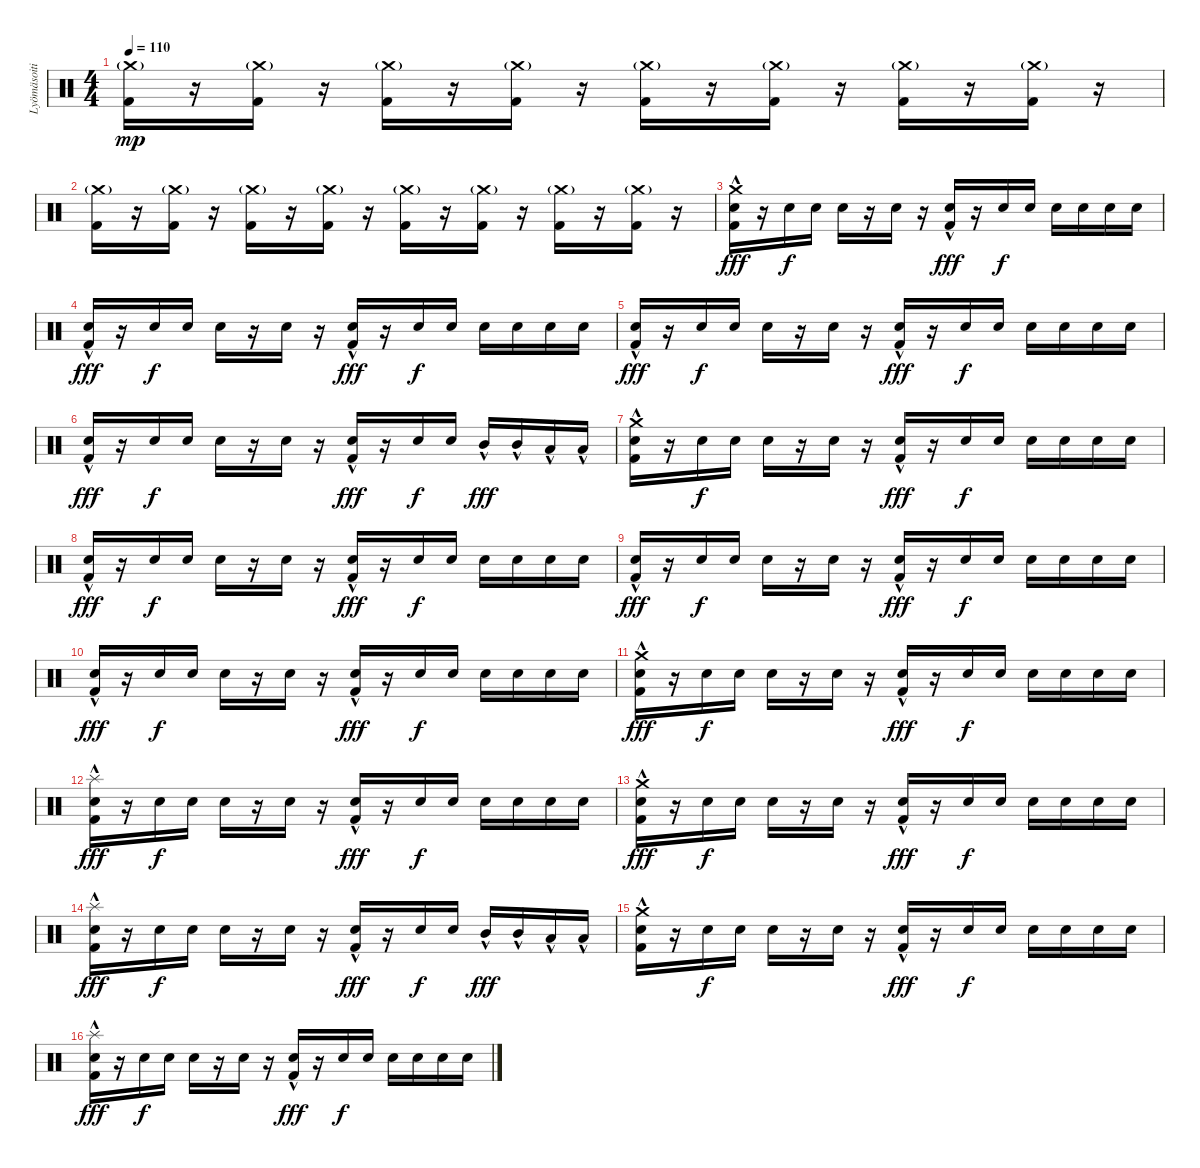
\track ("Lyömäsoitin" "Lyömäsoiti") {instrument percussion}
\staff {score}
\articulation defaults
\ts (4 4)
\tempo 110
\clef neutral
\ks c
("Crash medium (hit)"{g} "Kick (hit) 2").16{dy mp} r.16 ("Crash medium (hit)"{g} "Kick (hit) 2").16 r.16 ("Crash medium (hit)"{g} "Kick (hit) 2").16 r.16 ("Crash medium (hit)"{g} "Kick (hit) 2").16 r.16 ("Crash medium (hit)"{g} "Kick (hit) 2").16 r.16 ("Crash medium (hit)"{g} "Kick (hit) 2").16 r.16 ("Crash medium (hit)"{g} "Kick (hit) 2").16 r.16 ("Crash medium (hit)"{g} "Kick (hit) 2").16 r.16 |
("Crash medium (hit)"{g} "Kick (hit) 2").16 r.16 ("Crash medium (hit)"{g} "Kick (hit) 2").16 r.16 ("Crash medium (hit)"{g} "Kick (hit) 2").16 r.16 ("Crash medium (hit)"{g} "Kick (hit) 2").16 r.16 ("Crash medium (hit)"{g} "Kick (hit) 2").16 r.16 ("Crash medium (hit)"{g} "Kick (hit) 2").16 r.16 ("Crash medium (hit)"{g} "Kick (hit) 2").16 r.16 ("Crash medium (hit)"{g} "Kick (hit) 2").16 r.16 |
("Crash medium (hit)" "Snare (hit) 2"{hac} "Kick (hit) 2").16{dy fff} r.16 "Snare (hit) 2".16{dy f} "Snare (hit) 2".16 "Snare (hit) 2".16 r.16 "Snare (hit) 2".16 r.16 ("Snare (hit) 2"{hac} "Kick (hit) 2").16{dy fff} r.16 "Snare (hit) 2".16{dy f} "Snare (hit) 2".16 "Snare (hit) 2".16 "Snare (hit) 2".16 "Snare (hit) 2".16 "Snare (hit) 2".16 |
("Snare (hit) 2"{hac} "Kick (hit) 2").16{dy fff} r.16 "Snare (hit) 2".16{dy f} "Snare (hit) 2".16 "Snare (hit) 2".16 r.16 "Snare (hit) 2".16 r.16 ("Snare (hit) 2"{hac} "Kick (hit) 2").16{dy fff} r.16 "Snare (hit) 2".16{dy f} "Snare (hit) 2".16 "Snare (hit) 2".16 "Snare (hit) 2".16 "Snare (hit) 2".16 "Snare (hit) 2".16 |
("Snare (hit) 2"{hac} "Kick (hit) 2").16{dy fff} r.16 "Snare (hit) 2".16{dy f} "Snare (hit) 2".16 "Snare (hit) 2".16 r.16 "Snare (hit) 2".16 r.16 ("Snare (hit) 2"{hac} "Kick (hit) 2").16{dy fff} r.16 "Snare (hit) 2".16{dy f} "Snare (hit) 2".16 "Snare (hit) 2".16 "Snare (hit) 2".16 "Snare (hit) 2".16 "Snare (hit) 2".16 |
("Snare (hit) 2"{hac} "Kick (hit) 2").16{dy fff} r.16 "Snare (hit) 2".16{dy f} "Snare (hit) 2".16 "Snare (hit) 2".16 r.16 "Snare (hit) 2".16 r.16 ("Snare (hit) 2"{hac} "Kick (hit) 2").16{dy fff} r.16 "Snare (hit) 2".16{dy f} "Snare (hit) 2".16 "Mid Tom (hit)"{hac}.16{dy fff} "Mid Tom (hit)"{hac}.16 "Low Tom (hit)"{hac}.16 "Low Tom (hit)"{hac}.16 |
("Crash medium (hit)" "Snare (hit) 2"{hac} "Kick (hit) 2").16 r.16 "Snare (hit) 2".16{dy f} "Snare (hit) 2".16 "Snare (hit) 2".16 r.16 "Snare (hit) 2".16 r.16 ("Snare (hit) 2"{hac} "Kick (hit) 2").16{dy fff} r.16 "Snare (hit) 2".16{dy f} "Snare (hit) 2".16 "Snare (hit) 2".16 "Snare (hit) 2".16 "Snare (hit) 2".16 "Snare (hit) 2".16 |
("Snare (hit) 2"{hac} "Kick (hit) 2").16{dy fff} r.16 "Snare (hit) 2".16{dy f} "Snare (hit) 2".16 "Snare (hit) 2".16 r.16 "Snare (hit) 2".16 r.16 ("Snare (hit) 2"{hac} "Kick (hit) 2").16{dy fff} r.16 "Snare (hit) 2".16{dy f} "Snare (hit) 2".16 "Snare (hit) 2".16 "Snare (hit) 2".16 "Snare (hit) 2".16 "Snare (hit) 2".16 |
("Snare (hit) 2"{hac} "Kick (hit) 2").16{dy fff} r.16 "Snare (hit) 2".16{dy f} "Snare (hit) 2".16 "Snare (hit) 2".16 r.16 "Snare (hit) 2".16 r.16 ("Snare (hit) 2"{hac} "Kick (hit) 2").16{dy fff} r.16 "Snare (hit) 2".16{dy f} "Snare (hit) 2".16 "Snare (hit) 2".16 "Snare (hit) 2".16 "Snare (hit) 2".16 "Snare (hit) 2".16 |
("Snare (hit) 2"{hac} "Kick (hit) 2").16{dy fff} r.16 "Snare (hit) 2".16{dy f} "Snare (hit) 2".16 "Snare (hit) 2".16 r.16 "Snare (hit) 2".16 r.16 ("Snare (hit) 2"{hac} "Kick (hit) 2").16{dy fff} r.16 "Snare (hit) 2".16{dy f} "Snare (hit) 2".16 "Snare (hit) 2".16 "Snare (hit) 2".16 "Snare (hit) 2".16 "Snare (hit) 2".16 |
("Crash medium (hit)" "Snare (hit) 2"{hac} "Kick (hit) 2").16{dy fff} r.16 "Snare (hit) 2".16{dy f} "Snare (hit) 2".16 "Snare (hit) 2".16 r.16 "Snare (hit) 2".16 r.16 ("Snare (hit) 2"{hac} "Kick (hit) 2").16{dy fff} r.16 "Snare (hit) 2".16{dy f} "Snare (hit) 2".16 "Snare (hit) 2".16 "Snare (hit) 2".16 "Snare (hit) 2".16 "Snare (hit) 2".16 |
("Splash (hit)" "Snare (hit) 2"{hac} "Kick (hit) 2").16{dy fff} r.16 "Snare (hit) 2".16{dy f} "Snare (hit) 2".16 "Snare (hit) 2".16 r.16 "Snare (hit) 2".16 r.16 ("Snare (hit) 2"{hac} "Kick (hit) 2").16{dy fff} r.16 "Snare (hit) 2".16{dy f} "Snare (hit) 2".16 "Snare (hit) 2".16 "Snare (hit) 2".16 "Snare (hit) 2".16 "Snare (hit) 2".16 |
("Crash medium (hit)" "Snare (hit) 2"{hac} "Kick (hit) 2").16{dy fff} r.16 "Snare (hit) 2".16{dy f} "Snare (hit) 2".16 "Snare (hit) 2".16 r.16 "Snare (hit) 2".16 r.16 ("Snare (hit) 2"{hac} "Kick (hit) 2").16{dy fff} r.16 "Snare (hit) 2".16{dy f} "Snare (hit) 2".16 "Snare (hit) 2".16 "Snare (hit) 2".16 "Snare (hit) 2".16 "Snare (hit) 2".16 |
("Splash (hit)" "Snare (hit) 2"{hac} "Kick (hit) 2").16{dy fff} r.16 "Snare (hit) 2".16{dy f} "Snare (hit) 2".16 "Snare (hit) 2".16 r.16 "Snare (hit) 2".16 r.16 ("Snare (hit) 2"{hac} "Kick (hit) 2").16{dy fff} r.16 "Snare (hit) 2".16{dy f} "Snare (hit) 2".16 "Mid Tom (hit)"{hac}.16{dy fff} "Mid Tom (hit)"{hac}.16 "Low Tom (hit)"{hac}.16 "Low Tom (hit)"{hac}.16 |
("Crash medium (hit)" "Snare (hit) 2"{hac} "Kick (hit) 2").16 r.16 "Snare (hit) 2".16{dy f} "Snare (hit) 2".16 "Snare (hit) 2".16 r.16 "Snare (hit) 2".16 r.16 ("Snare (hit) 2"{hac} "Kick (hit) 2").16{dy fff} r.16 "Snare (hit) 2".16{dy f} "Snare (hit) 2".16 "Snare (hit) 2".16 "Snare (hit) 2".16 "Snare (hit) 2".16 "Snare (hit) 2".16 |
("Splash (hit)" "Snare (hit) 2"{hac} "Kick (hit) 2").16{dy fff} r.16 "Snare (hit) 2".16{dy f} "Snare (hit) 2".16 "Snare (hit) 2".16 r.16 "Snare (hit) 2".16 r.16 ("Snare (hit) 2"{hac} "Kick (hit) 2").16{dy fff} r.16 "Snare (hit) 2".16{dy f} "Snare (hit) 2".16 "Snare (hit) 2".16 "Snare (hit) 2".16 "Snare (hit) 2".16 "Snare (hit) 2".16
